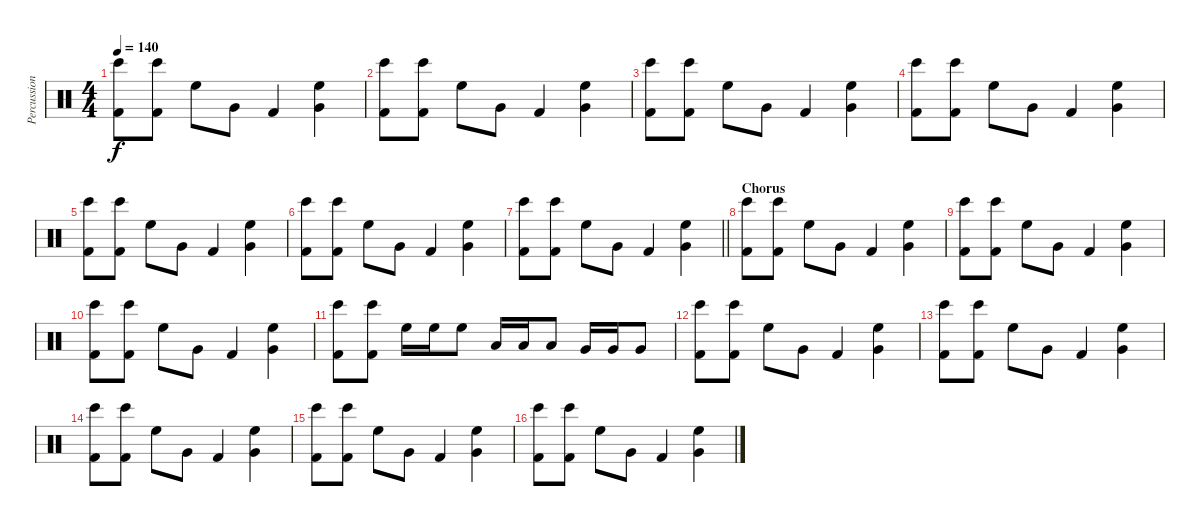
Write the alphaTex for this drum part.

\track ("Percussion" "Percussion") {instrument percussion}
\staff {score}
\articulation defaults
\ts (4 4)
\tempo 140
\clef neutral
\ks c
("Bongo High (hit)" "Kick (hit) 2").8{dy f} ("Bongo High (hit)" "Kick (hit) 2").8 "High Floor Tom (hit)".8 "Very Low Tom (hit)".8 "Kick (hit) 2".4 ("High Floor Tom (hit)" "Very Low Tom (hit)").4 |
("Bongo High (hit)" "Kick (hit) 2").8 ("Bongo High (hit)" "Kick (hit) 2").8 "High Floor Tom (hit)".8 "Very Low Tom (hit)".8 "Kick (hit) 2".4 ("High Floor Tom (hit)" "Very Low Tom (hit)").4 |
("Bongo High (hit)" "Kick (hit) 2").8 ("Bongo High (hit)" "Kick (hit) 2").8 "High Floor Tom (hit)".8 "Very Low Tom (hit)".8 "Kick (hit) 2".4 ("High Floor Tom (hit)" "Very Low Tom (hit)").4 |
("Bongo High (hit)" "Kick (hit) 2").8 ("Bongo High (hit)" "Kick (hit) 2").8 "High Floor Tom (hit)".8 "Very Low Tom (hit)".8 "Kick (hit) 2".4 ("High Floor Tom (hit)" "Very Low Tom (hit)").4 |
("Bongo High (hit)" "Kick (hit) 2").8 ("Bongo High (hit)" "Kick (hit) 2").8 "High Floor Tom (hit)".8 "Very Low Tom (hit)".8 "Kick (hit) 2".4 ("High Floor Tom (hit)" "Very Low Tom (hit)").4 |
("Bongo High (hit)" "Kick (hit) 2").8 ("Bongo High (hit)" "Kick (hit) 2").8 "High Floor Tom (hit)".8 "Very Low Tom (hit)".8 "Kick (hit) 2".4 ("High Floor Tom (hit)" "Very Low Tom (hit)").4 |
\barLineRight lightlight
("Bongo High (hit)" "Kick (hit) 2").8 ("Bongo High (hit)" "Kick (hit) 2").8 "High Floor Tom (hit)".8 "Very Low Tom (hit)".8 "Kick (hit) 2".4 ("High Floor Tom (hit)" "Very Low Tom (hit)").4 |
\section ("" "Chorus")
("Bongo High (hit)" "Kick (hit) 2").8 ("Bongo High (hit)" "Kick (hit) 2").8 "High Floor Tom (hit)".8 "Very Low Tom (hit)".8 "Kick (hit) 2".4 ("High Floor Tom (hit)" "Very Low Tom (hit)").4 |
("Bongo High (hit)" "Kick (hit) 2").8 ("Bongo High (hit)" "Kick (hit) 2").8 "High Floor Tom (hit)".8 "Very Low Tom (hit)".8 "Kick (hit) 2".4 ("High Floor Tom (hit)" "Very Low Tom (hit)").4 |
("Bongo High (hit)" "Kick (hit) 2").8 ("Bongo High (hit)" "Kick (hit) 2").8 "High Floor Tom (hit)".8 "Very Low Tom (hit)".8 "Kick (hit) 2".4 ("High Floor Tom (hit)" "Very Low Tom (hit)").4 |
("Bongo High (hit)" "Kick (hit) 2").8 ("Bongo High (hit)" "Kick (hit) 2").8 "High Floor Tom (hit)".16 "High Floor Tom (hit)".16 "High Floor Tom (hit)".8 "Low Tom (hit)".16 "Low Tom (hit)".16 "Low Tom (hit)".8 "Very Low Tom (hit)".16 "Very Low Tom (hit)".16 "Very Low Tom (hit)".8 |
("Bongo High (hit)" "Kick (hit) 2").8 ("Bongo High (hit)" "Kick (hit) 2").8 "High Floor Tom (hit)".8 "Very Low Tom (hit)".8 "Kick (hit) 2".4 ("High Floor Tom (hit)" "Very Low Tom (hit)").4 |
("Bongo High (hit)" "Kick (hit) 2").8 ("Bongo High (hit)" "Kick (hit) 2").8 "High Floor Tom (hit)".8 "Very Low Tom (hit)".8 "Kick (hit) 2".4 ("High Floor Tom (hit)" "Very Low Tom (hit)").4 |
("Bongo High (hit)" "Kick (hit) 2").8 ("Bongo High (hit)" "Kick (hit) 2").8 "High Floor Tom (hit)".8 "Very Low Tom (hit)".8 "Kick (hit) 2".4 ("High Floor Tom (hit)" "Very Low Tom (hit)").4 |
("Bongo High (hit)" "Kick (hit) 2").8 ("Bongo High (hit)" "Kick (hit) 2").8 "High Floor Tom (hit)".8 "Very Low Tom (hit)".8 "Kick (hit) 2".4 ("High Floor Tom (hit)" "Very Low Tom (hit)").4 |
("Bongo High (hit)" "Kick (hit) 2").8 ("Bongo High (hit)" "Kick (hit) 2").8 "High Floor Tom (hit)".8 "Very Low Tom (hit)".8 "Kick (hit) 2".4 ("High Floor Tom (hit)" "Very Low Tom (hit)").4
